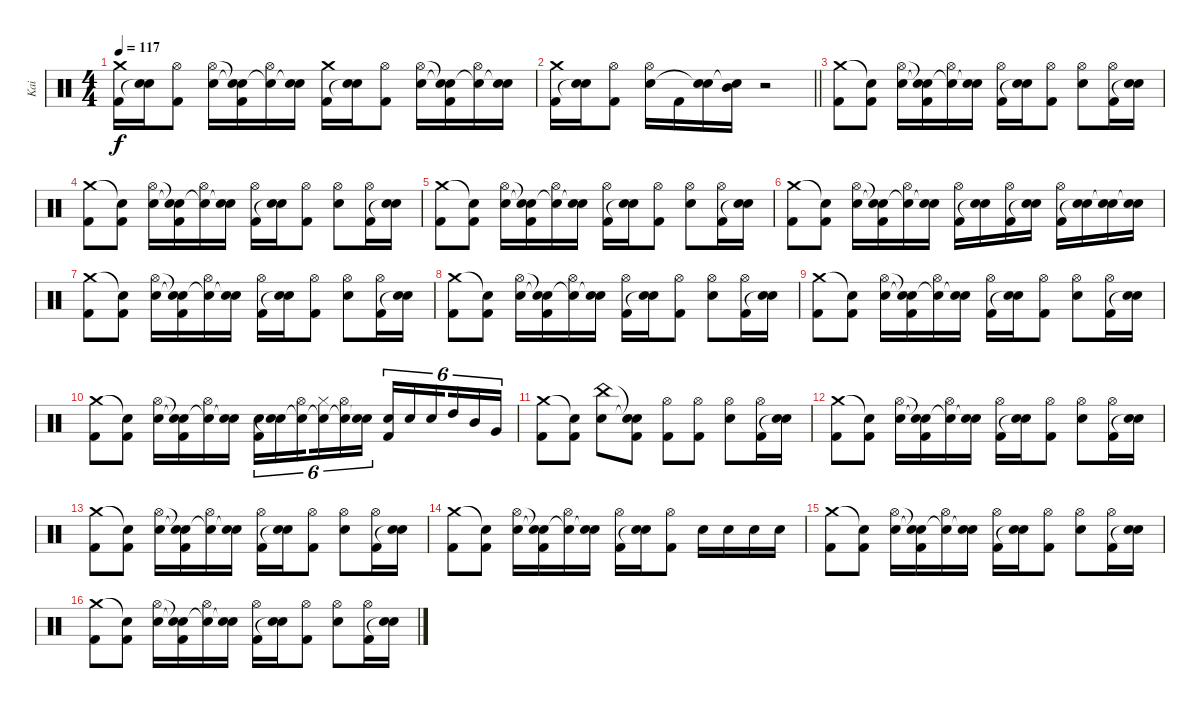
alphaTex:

\track ("Kai" "Kai") {instrument percussion}
\staff {score}
\articulation defaults
\ts (4 4)
\tempo 117
\clef neutral
\ks c
("Crash medium (hit)" "Kick (hit) 2").16{dy f} ("Snare (hit) 2" "Snare (hit)"{t}).16 ("Hi-Hat (open)" "Kick (hit) 2").8 ("Hi-Hat (open)" "Snare (hit) 2").16 ("Snare (hit)"{t} "Snare (hit)"{t} "Kick (hit) 2").16 ("Hi-Hat (open)" "Snare (hit)"{t}).16 ("Snare (hit) 2" "Snare (hit)"{t}).16 ("Crash medium (hit)" "Kick (hit) 2").16 ("Snare (hit) 2" "Snare (hit)"{t}).16 ("Hi-Hat (open)" "Kick (hit) 2").8 ("Hi-Hat (open)" "Snare (hit) 2").16 ("Snare (hit)"{t} "Snare (hit)"{t} "Kick (hit) 2").16 ("Hi-Hat (open)" "Snare (hit)"{t}).16 ("Snare (hit) 2" "Snare (hit)"{t}).16 |
\barLineRight lightlight
("Crash medium (hit)" "Kick (hit) 2").16 ("Snare (hit) 2" "Snare (hit)"{t}).16 ("Hi-Hat (open)" "Kick (hit) 2").8 ("Hi-Hat (open)" "Snare (hit) 2").16 "Kick (hit) 2".16 ("Snare (hit) 2" "Snare (hit)"{t}).16 ("Mid Tom (hit)" "Snare (hit)"{t}).16 r.2 |
("Crash medium (hit)" "Kick (hit) 2").8 ("Snare (hit)"{t} "Kick (hit) 2").8 ("Hi-Hat (open)" "Snare (hit) 2").16 ("Snare (hit)"{t} "Snare (hit)"{t} "Kick (hit) 2").16 ("Hi-Hat (open)" "Snare (hit)"{t}).16 ("Snare (hit) 2" "Snare (hit)"{t}).16 ("Hi-Hat (open)" "Kick (hit) 2").16 ("Snare (hit) 2" "Snare (hit)"{t}).16 ("Hi-Hat (open)" "Kick (hit) 2").8 ("Hi-Hat (open)" "Snare (hit) 2").8 ("Hi-Hat (open)" "Kick (hit) 2").16 ("Snare (hit) 2" "Snare (hit)"{t}).16 |
("Crash medium (hit)" "Kick (hit) 2").8 ("Snare (hit)"{t} "Kick (hit) 2").8 ("Hi-Hat (open)" "Snare (hit) 2").16 ("Snare (hit)"{t} "Snare (hit)"{t} "Kick (hit) 2").16 ("Hi-Hat (open)" "Snare (hit)"{t}).16 ("Snare (hit) 2" "Snare (hit)"{t}).16 ("Hi-Hat (open)" "Kick (hit) 2").16 ("Snare (hit) 2" "Snare (hit)"{t}).16 ("Hi-Hat (open)" "Kick (hit) 2").8 ("Hi-Hat (open)" "Snare (hit) 2").8 ("Hi-Hat (open)" "Kick (hit) 2").16 ("Snare (hit) 2" "Snare (hit)"{t}).16 |
("Crash medium (hit)" "Kick (hit) 2").8 ("Snare (hit)"{t} "Kick (hit) 2").8 ("Hi-Hat (open)" "Snare (hit) 2").16 ("Snare (hit)"{t} "Snare (hit)"{t} "Kick (hit) 2").16 ("Hi-Hat (open)" "Snare (hit)"{t}).16 ("Snare (hit) 2" "Snare (hit)"{t}).16 ("Hi-Hat (open)" "Kick (hit) 2").16 ("Snare (hit) 2" "Snare (hit)"{t}).16 ("Hi-Hat (open)" "Kick (hit) 2").8 ("Hi-Hat (open)" "Snare (hit) 2").8 ("Hi-Hat (open)" "Kick (hit) 2").16 ("Snare (hit) 2" "Snare (hit)"{t}).16 |
("Crash medium (hit)" "Kick (hit) 2").8 ("Snare (hit)"{t} "Kick (hit) 2").8 ("Hi-Hat (open)" "Snare (hit) 2").16 ("Snare (hit)"{t} "Snare (hit)"{t} "Kick (hit) 2").16 ("Hi-Hat (open)" "Snare (hit)"{t}).16 ("Snare (hit) 2" "Snare (hit)"{t}).16 ("Hi-Hat (open)" "Kick (hit) 2").16 ("Snare (hit) 2" "Snare (hit)"{t}).16 ("Hi-Hat (open)" "Kick (hit) 2").16 ("Snare (hit) 2" "Snare (hit)"{t}).16 ("Hi-Hat (open)" "Kick (hit) 2").16 ("Snare (hit) 2" "Snare (hit)"{t}).16 ("Snare (hit) 2" "Snare (hit)"{t}).16 ("Snare (hit) 2" "Snare (hit)"{t}).16 |
("Crash medium (hit)" "Kick (hit) 2").8 ("Snare (hit)"{t} "Kick (hit) 2").8 ("Hi-Hat (open)" "Snare (hit) 2").16 ("Snare (hit)"{t} "Snare (hit)"{t} "Kick (hit) 2").16 ("Hi-Hat (open)" "Snare (hit)"{t}).16 ("Snare (hit) 2" "Snare (hit)"{t}).16 ("Hi-Hat (open)" "Kick (hit) 2").16 ("Snare (hit) 2" "Snare (hit)"{t}).16 ("Hi-Hat (open)" "Kick (hit) 2").8 ("Hi-Hat (open)" "Snare (hit) 2").8 ("Hi-Hat (open)" "Kick (hit) 2").16 ("Snare (hit) 2" "Snare (hit)"{t}).16 |
("Crash medium (hit)" "Kick (hit) 2").8 ("Snare (hit)"{t} "Kick (hit) 2").8 ("Hi-Hat (open)" "Snare (hit) 2").16 ("Snare (hit)"{t} "Snare (hit)"{t} "Kick (hit) 2").16 ("Hi-Hat (open)" "Snare (hit)"{t}).16 ("Snare (hit) 2" "Snare (hit)"{t}).16 ("Hi-Hat (open)" "Kick (hit) 2").16 ("Snare (hit) 2" "Snare (hit)"{t}).16 ("Hi-Hat (open)" "Kick (hit) 2").8 ("Hi-Hat (open)" "Snare (hit) 2").8 ("Hi-Hat (open)" "Kick (hit) 2").16 ("Snare (hit) 2" "Snare (hit)"{t}).16 |
("Crash medium (hit)" "Kick (hit) 2").8 ("Snare (hit)"{t} "Kick (hit) 2").8 ("Hi-Hat (open)" "Snare (hit) 2").16 ("Snare (hit)"{t} "Snare (hit)"{t} "Kick (hit) 2").16 ("Hi-Hat (open)" "Snare (hit)"{t}).16 ("Snare (hit) 2" "Snare (hit)"{t}).16 ("Hi-Hat (open)" "Kick (hit) 2").16 ("Snare (hit) 2" "Snare (hit)"{t}).16 ("Hi-Hat (open)" "Kick (hit) 2").8 ("Hi-Hat (open)" "Snare (hit) 2").8 ("Hi-Hat (open)" "Kick (hit) 2").16 ("Snare (hit) 2" "Snare (hit)"{t}).16 |
("Crash medium (hit)" "Kick (hit) 2").8 ("Snare (hit)"{t} "Kick (hit) 2").8 ("Hi-Hat (open)" "Snare (hit) 2").16 ("Snare (hit)"{t} "Snare (hit)"{t} "Kick (hit) 2").16 ("Hi-Hat (open)" "Snare (hit)"{t}).16 ("Snare (hit) 2" "Snare (hit)"{t}).16 ("Snare (hit) 2" "Kick (hit) 2").16{tu (6 4)} ("Snare (hit) 2" "Snare (hit)"{t}).16{tu (6 4)} ("Hi-Hat (open)" "Snare (hit)"{t}).16{tu (6 4) beam splitsecondary} ("Hi-Hat (closed)" "Snare (hit)"{t}).16{tu (6 4)} ("Hi-Hat (open)" "Snare (hit)"{t}).16{tu (6 4)} ("Snare (hit) 2" "Snare (hit)"{t}).16{tu (6 4)} ("Snare (hit) 2" "Kick (hit) 2").16{tu (6 4)} "Snare (hit) 2".16{tu (6 4)} "Snare (hit) 2".16{tu (6 4) beam splitsecondary} "High Tom (hit)".16{tu (6 4)} "Mid Tom (hit)".16{tu (6 4)} "Very Low Tom (hit)".16{tu (6 4)} |
("Crash medium (hit)" "Kick (hit) 2").8 ("Snare (hit)"{t} "Kick (hit) 2").8 ("China (hit)" "Snare (hit) 2").8 ("Snare (hit)"{t} "Snare (hit)"{t} "Kick (hit) 2").8 ("Hi-Hat (open)" "Kick (hit) 2").8 ("Hi-Hat (open)" "Kick (hit) 2").8 ("Hi-Hat (open)" "Snare (hit) 2").8 ("Hi-Hat (open)" "Kick (hit) 2").16 ("Snare (hit) 2" "Snare (hit)"{t}).16 |
("Crash medium (hit)" "Kick (hit) 2").8 ("Snare (hit)"{t} "Kick (hit) 2").8 ("Hi-Hat (open)" "Snare (hit) 2").16 ("Snare (hit)"{t} "Snare (hit)"{t} "Kick (hit) 2").16 ("Hi-Hat (open)" "Snare (hit)"{t}).16 ("Snare (hit) 2" "Snare (hit)"{t}).16 ("Hi-Hat (open)" "Kick (hit) 2").16 ("Snare (hit) 2" "Snare (hit)"{t}).16 ("Hi-Hat (open)" "Kick (hit) 2").8 ("Hi-Hat (open)" "Snare (hit) 2").8 ("Hi-Hat (open)" "Kick (hit) 2").16 ("Snare (hit) 2" "Snare (hit)"{t}).16 |
("Crash medium (hit)" "Kick (hit) 2").8 ("Snare (hit)"{t} "Kick (hit) 2").8 ("Hi-Hat (open)" "Snare (hit) 2").16 ("Snare (hit)"{t} "Snare (hit)"{t} "Kick (hit) 2").16 ("Hi-Hat (open)" "Snare (hit)"{t}).16 ("Snare (hit) 2" "Snare (hit)"{t}).16 ("Hi-Hat (open)" "Kick (hit) 2").16 ("Snare (hit) 2" "Snare (hit)"{t}).16 ("Hi-Hat (open)" "Kick (hit) 2").8 ("Hi-Hat (open)" "Snare (hit) 2").8 ("Hi-Hat (open)" "Kick (hit) 2").16 ("Snare (hit) 2" "Snare (hit)"{t}).16 |
("Crash medium (hit)" "Kick (hit) 2").8 ("Snare (hit)"{t} "Kick (hit) 2").8 ("Hi-Hat (open)" "Snare (hit) 2").16 ("Snare (hit)"{t} "Snare (hit)"{t} "Kick (hit) 2").16 ("Hi-Hat (open)" "Snare (hit)"{t}).16 ("Snare (hit) 2" "Snare (hit)"{t}).16 ("Hi-Hat (open)" "Kick (hit) 2").16 ("Snare (hit) 2" "Snare (hit)"{t}).16 ("Hi-Hat (open)" "Kick (hit) 2").8 "Snare (hit) 2".16 "Snare (hit) 2".16 "Snare (hit) 2".16 "Snare (hit) 2".16 |
("Crash medium (hit)" "Kick (hit) 2").8 ("Snare (hit)"{t} "Kick (hit) 2").8 ("Hi-Hat (open)" "Snare (hit) 2").16 ("Snare (hit)"{t} "Snare (hit)"{t} "Kick (hit) 2").16 ("Hi-Hat (open)" "Snare (hit)"{t}).16 ("Snare (hit) 2" "Snare (hit)"{t}).16 ("Hi-Hat (open)" "Kick (hit) 2").16 ("Snare (hit) 2" "Snare (hit)"{t}).16 ("Hi-Hat (open)" "Kick (hit) 2").8 ("Hi-Hat (open)" "Snare (hit) 2").8 ("Hi-Hat (open)" "Kick (hit) 2").16 ("Snare (hit) 2" "Snare (hit)"{t}).16 |
("Crash medium (hit)" "Kick (hit) 2").8 ("Snare (hit)"{t} "Kick (hit) 2").8 ("Hi-Hat (open)" "Snare (hit) 2").16 ("Snare (hit)"{t} "Snare (hit)"{t} "Kick (hit) 2").16 ("Hi-Hat (open)" "Snare (hit)"{t}).16 ("Snare (hit) 2" "Snare (hit)"{t}).16 ("Hi-Hat (open)" "Kick (hit) 2").16 ("Snare (hit) 2" "Snare (hit)"{t}).16 ("Hi-Hat (open)" "Kick (hit) 2").8 ("Hi-Hat (open)" "Snare (hit) 2").8 ("Hi-Hat (open)" "Kick (hit) 2").16 ("Snare (hit) 2" "Snare (hit)"{t}).16
